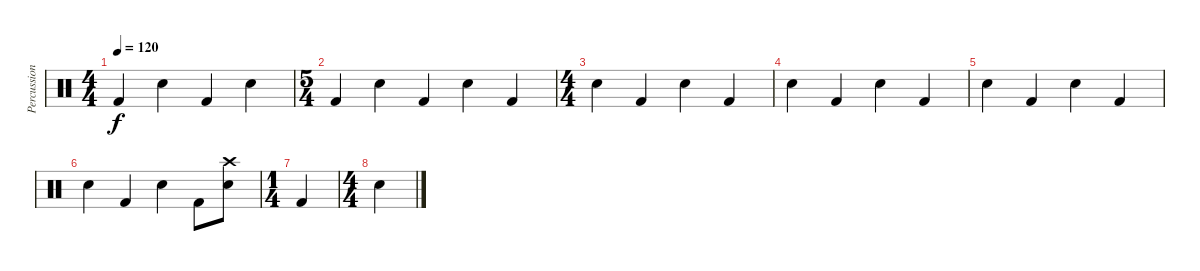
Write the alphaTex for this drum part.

\track ("Percussions" "Percussion") {instrument percussion}
\staff {score}
\articulation defaults
\ts (4 4)
\tempo 120
\clef neutral
\ks c "Kick (hit) 2".4{dy f} "Snare (hit) 2".4 "Kick (hit) 2".4 "Snare (hit) 2".4
|
\ts (5 4)
"Kick (hit) 2".4 "Snare (hit) 2".4 "Kick (hit) 2".4 "Snare (hit) 2".4 "Kick (hit) 2".4 |
\ts (4 4)
"Snare (hit) 2".4 "Kick (hit) 2".4 "Snare (hit) 2".4 "Kick (hit) 2".4 |
"Snare (hit) 2".4 "Kick (hit) 2".4 "Snare (hit) 2".4 "Kick (hit) 2".4 |
"Snare (hit) 2".4 "Kick (hit) 2".4 "Snare (hit) 2".4 "Kick (hit) 2".4 |
"Snare (hit) 2".4 "Kick (hit) 2".4 "Snare (hit) 2".4 "Kick (hit) 2".8 ("Crash high (hit)" "Snare (hit) 2").8 |
\ts (1 4)
"Kick (hit) 2".4 |
\ts (4 4)
"Snare (hit) 2".4
